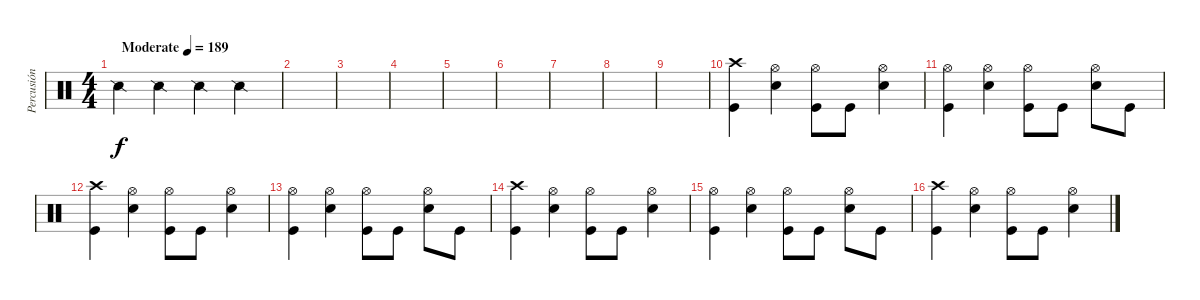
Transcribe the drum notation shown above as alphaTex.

\track ("Percusión" "Percusión") {instrument percussion}
\staff {score}
\articulation defaults
\ts (4 4)
\tempo (189 "Moderate")
\clef neutral
\ks c "Snare (side stick) 2".4{dy f} "Snare (side stick) 2".4 "Snare (side stick) 2".4 "Snare (side stick) 2".4
|
|
|
|
|
|
|
|
|
("Crash high (hit)" "Kick (hit)").4 ("Hi-Hat (open)" "Electric Snare (hit)").4 ("Hi-Hat (open)" "Kick (hit)").8 "Kick (hit)".8 ("Hi-Hat (open)" "Electric Snare (hit)").4 |
("Hi-Hat (open)" "Kick (hit)").4 ("Hi-Hat (open)" "Electric Snare (hit)").4 ("Hi-Hat (open)" "Kick (hit)").8 "Kick (hit)".8 ("Hi-Hat (open)" "Electric Snare (hit)").8 "Kick (hit)".8 |
("Crash high (hit)" "Kick (hit)").4 ("Hi-Hat (open)" "Electric Snare (hit)").4 ("Hi-Hat (open)" "Kick (hit)").8 "Kick (hit)".8 ("Hi-Hat (open)" "Electric Snare (hit)").4 |
("Hi-Hat (open)" "Kick (hit)").4 ("Hi-Hat (open)" "Electric Snare (hit)").4 ("Hi-Hat (open)" "Kick (hit)").8 "Kick (hit)".8 ("Hi-Hat (open)" "Electric Snare (hit)").8 "Kick (hit)".8 |
("Crash high (hit)" "Kick (hit)").4 ("Hi-Hat (open)" "Electric Snare (hit)").4 ("Hi-Hat (open)" "Kick (hit)").8 "Kick (hit)".8 ("Hi-Hat (open)" "Electric Snare (hit)").4 |
("Hi-Hat (open)" "Kick (hit)").4 ("Hi-Hat (open)" "Electric Snare (hit)").4 ("Hi-Hat (open)" "Kick (hit)").8 "Kick (hit)".8 ("Hi-Hat (open)" "Electric Snare (hit)").8 "Kick (hit)".8 |
("Crash high (hit)" "Kick (hit)").4 ("Hi-Hat (open)" "Electric Snare (hit)").4 ("Hi-Hat (open)" "Kick (hit)").8 "Kick (hit)".8 ("Hi-Hat (open)" "Electric Snare (hit)").4
